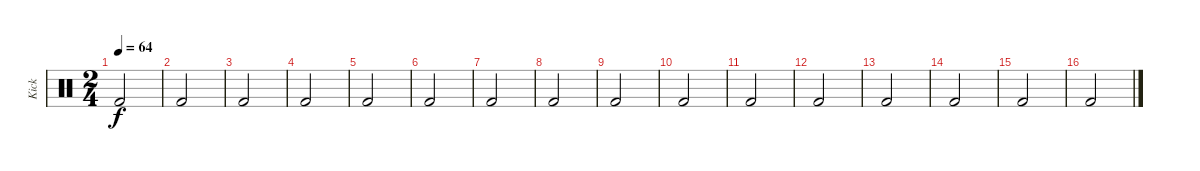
\track ("Kick" "Kick") {instrument percussion}
\staff {score}
\articulation defaults
\ts (2 4)
\tempo 64
\clef neutral
\ks c "Kick (hit) 2".2{dy f}
|
"Kick (hit) 2".2 |
"Kick (hit) 2".2 |
"Kick (hit) 2".2 |
"Kick (hit) 2".2 |
"Kick (hit) 2".2 |
"Kick (hit) 2".2 |
"Kick (hit) 2".2 |
"Kick (hit) 2".2 |
"Kick (hit) 2".2 |
"Kick (hit) 2".2 |
"Kick (hit) 2".2 |
"Kick (hit) 2".2 |
"Kick (hit) 2".2 |
"Kick (hit) 2".2 |
"Kick (hit) 2".2
